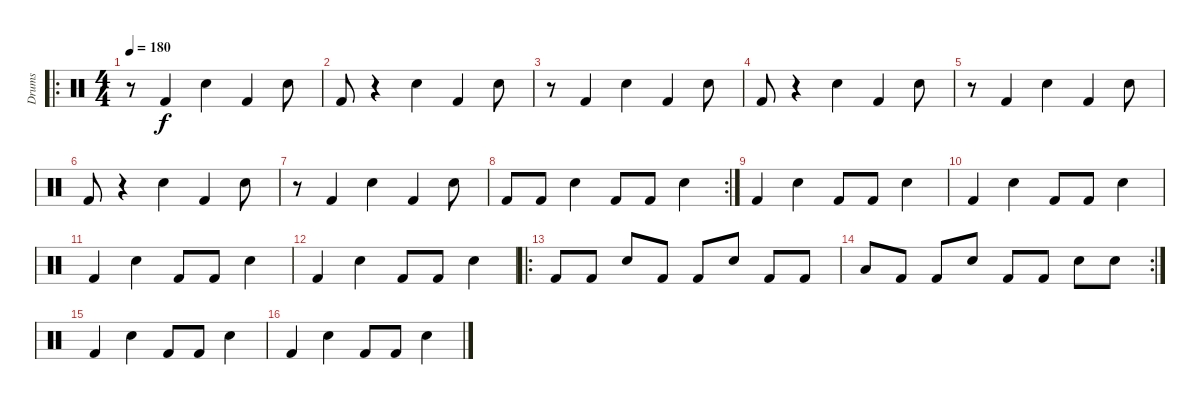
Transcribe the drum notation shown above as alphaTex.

\track ("Drums" "Drums") {instrument percussion}
\staff {score}
\articulation defaults
\ro
\ts (4 4)
\tempo 180
\clef neutral
\ks c
r.8{dy f} "Kick (hit) 2".4 "Snare (hit) 2".4 "Kick (hit) 2".4 "Snare (hit) 2".8 |
"Kick (hit) 2".8 r.4 "Snare (hit) 2".4 "Kick (hit) 2".4 "Snare (hit) 2".8 |
r.8 "Kick (hit) 2".4 "Snare (hit) 2".4 "Kick (hit) 2".4 "Snare (hit) 2".8 |
"Kick (hit) 2".8 r.4 "Snare (hit) 2".4 "Kick (hit) 2".4 "Snare (hit) 2".8 |
r.8 "Kick (hit) 2".4 "Snare (hit) 2".4 "Kick (hit) 2".4 "Snare (hit) 2".8 |
"Kick (hit) 2".8 r.4 "Snare (hit) 2".4 "Kick (hit) 2".4 "Snare (hit) 2".8 |
r.8 "Kick (hit) 2".4 "Snare (hit) 2".4 "Kick (hit) 2".4 "Snare (hit) 2".8 |
\rc 2 "Kick (hit) 2".8 "Kick (hit) 2".8 "Snare (hit) 2".4 "Kick (hit) 2".8 "Kick (hit) 2".8 "Snare (hit) 2".4
|
"Kick (hit) 2".4 "Snare (hit) 2".4 "Kick (hit) 2".8 "Kick (hit) 2".8 "Snare (hit) 2".4 |
"Kick (hit) 2".4 "Snare (hit) 2".4 "Kick (hit) 2".8 "Kick (hit) 2".8 "Snare (hit) 2".4 |
"Kick (hit) 2".4 "Snare (hit) 2".4 "Kick (hit) 2".8 "Kick (hit) 2".8 "Snare (hit) 2".4 |
"Kick (hit) 2".4 "Snare (hit) 2".4 "Kick (hit) 2".8 "Kick (hit) 2".8 "Snare (hit) 2".4 |
\ro "Kick (hit) 2".8 "Kick (hit) 2".8 "Snare (hit) 2".8 "Kick (hit) 2".8 "Kick (hit) 2".8 "Electric Snare (hit)".8 "Kick (hit) 2".8 "Kick (hit) 2".8
|
\rc 2 "Low Floor Tom (hit)".8 "Kick (hit) 2".8 "Kick (hit) 2".8 "Snare (hit) 2".8 "Kick (hit) 2".8 "Kick (hit) 2".8 "Snare (hit) 2".8 "Snare (hit) 2".8
|
"Kick (hit) 2".4 "Snare (hit) 2".4 "Kick (hit) 2".8 "Kick (hit) 2".8 "Snare (hit) 2".4 |
"Kick (hit) 2".4 "Snare (hit) 2".4 "Kick (hit) 2".8 "Kick (hit) 2".8 "Snare (hit) 2".4
